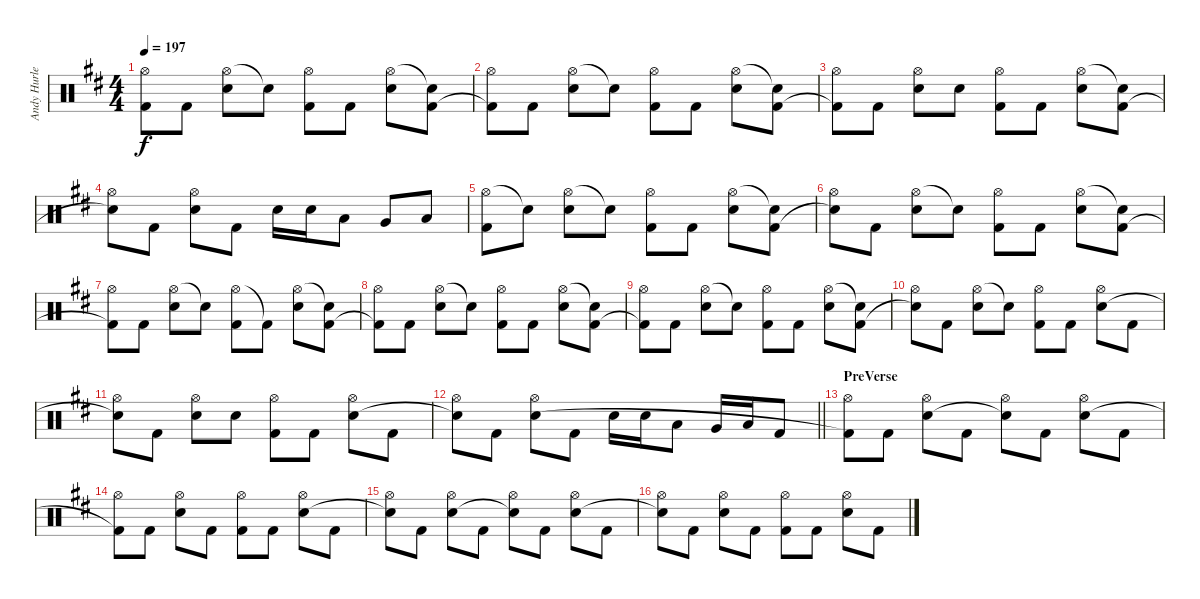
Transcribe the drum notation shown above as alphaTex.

\track ("Andy Hurley (Drums)" "Andy Hurle") {instrument percussion}
\staff {score}
\articulation defaults
\ts (4 4)
\tempo 197
\clef neutral
\ks d
("Hi-Hat (open)" "Kick (hit) 2"{t}).8{dy f} "Kick (hit) 2".8 ("Hi-Hat (open)" "Electric Snare (hit)").8 "Snare (hit)"{t}.8 ("Hi-Hat (open)" "Kick (hit) 2").8 "Kick (hit) 2".8 ("Hi-Hat (open)" "Electric Snare (hit)").8 ("Snare (hit)"{t} "Kick (hit) 2").8 |
("Hi-Hat (open)" "Kick (hit) 2"{t}).8 "Kick (hit) 2".8 ("Hi-Hat (open)" "Electric Snare (hit)").8 "Snare (hit)"{t}.8 ("Hi-Hat (open)" "Kick (hit) 2").8 "Kick (hit) 2".8 ("Hi-Hat (open)" "Electric Snare (hit)").8 ("Snare (hit)"{t} "Kick (hit) 2").8 |
("Hi-Hat (open)" "Kick (hit) 2"{t}).8 "Kick (hit) 2".8 ("Hi-Hat (open)" "Electric Snare (hit)").8 "Electric Snare (hit)".8 ("Hi-Hat (open)" "Kick (hit) 2").8 "Kick (hit) 2".8 ("Hi-Hat (open)" "Electric Snare (hit)").8 ("Snare (hit)"{t} "Kick (hit) 2").8 |
("Hi-Hat (open)" "Snare (hit)"{t}).8 "Kick (hit) 2".8 ("Hi-Hat (open)" "Electric Snare (hit)").8 "Kick (hit) 2".8 "Electric Snare (hit)".16 "Electric Snare (hit)".16 "Low Tom (hit)".8 "Very Low Tom (hit)".8 "Low Floor Tom (hit)".8 |
("Hi-Hat (open)" "Kick (hit) 2").8 "Snare (hit)"{t}.8 ("Hi-Hat (open)" "Electric Snare (hit)").8 "Snare (hit)"{t}.8 ("Hi-Hat (open)" "Kick (hit) 2").8 "Kick (hit) 2".8 ("Hi-Hat (open)" "Electric Snare (hit)").8 ("Snare (hit)"{t} "Kick (hit) 2").8 |
("Hi-Hat (open)" "Snare (hit)"{t}).8 "Kick (hit) 2".8 ("Hi-Hat (open)" "Electric Snare (hit)").8 "Snare (hit)"{t}.8 ("Hi-Hat (open)" "Kick (hit) 2").8 "Kick (hit) 2".8 ("Hi-Hat (open)" "Electric Snare (hit)").8 ("Snare (hit)"{t} "Kick (hit) 2").8 |
("Hi-Hat (open)" "Kick (hit) 2"{t}).8 "Kick (hit) 2".8 ("Hi-Hat (open)" "Electric Snare (hit)").8 "Snare (hit)"{t}.8 ("Hi-Hat (open)" "Kick (hit) 2").8 "Kick (hit) 2"{t}.8 ("Hi-Hat (open)" "Electric Snare (hit)").8 ("Snare (hit)"{t} "Kick (hit) 2").8 |
("Hi-Hat (open)" "Kick (hit) 2"{t}).8 "Kick (hit) 2".8 ("Hi-Hat (open)" "Electric Snare (hit)").8 "Snare (hit)"{t}.8 ("Hi-Hat (open)" "Kick (hit) 2").8 "Kick (hit) 2".8 ("Hi-Hat (open)" "Electric Snare (hit)").8 ("Snare (hit)"{t} "Kick (hit) 2").8 |
("Hi-Hat (open)" "Kick (hit) 2"{t}).8 "Kick (hit) 2".8 ("Hi-Hat (open)" "Electric Snare (hit)").8 "Snare (hit)"{t}.8 ("Hi-Hat (open)" "Kick (hit) 2").8 "Kick (hit) 2".8 ("Hi-Hat (open)" "Electric Snare (hit)").8 ("Snare (hit)"{t} "Kick (hit) 2").8 |
("Hi-Hat (open)" "Snare (hit)"{t}).8 "Kick (hit) 2".8 ("Hi-Hat (open)" "Electric Snare (hit)").8 "Snare (hit)"{t}.8 ("Hi-Hat (open)" "Kick (hit) 2").8 "Kick (hit) 2".8 ("Hi-Hat (open)" "Electric Snare (hit)").8 "Kick (hit) 2".8 |
("Hi-Hat (open)" "Snare (hit)"{t}).8 "Kick (hit) 2".8 ("Hi-Hat (open)" "Electric Snare (hit)").8 "Electric Snare (hit)".8 ("Hi-Hat (open)" "Kick (hit) 2").8 "Kick (hit) 2".8 ("Hi-Hat (open)" "Electric Snare (hit)").8 "Kick (hit) 2".8 |
\barLineRight lightlight
("Hi-Hat (open)" "Snare (hit)"{t}).8 "Kick (hit) 2".8 ("Hi-Hat (open)" "Electric Snare (hit)").8 "Kick (hit) 2".8 "Electric Snare (hit)".16 "Electric Snare (hit)".16 "Low Tom (hit)".8 "Very Low Tom (hit)".16 "Low Floor Tom (hit)".16 "Kick (hit) 2".8 |
\section ("" "PreVerse")
("Hi-Hat (open)" "Kick (hit) 2"{t}).8 "Kick (hit) 2".8 ("Hi-Hat (open)" "Electric Snare (hit)").8 "Kick (hit) 2".8 ("Hi-Hat (open)" "Snare (hit)"{t}).8 "Kick (hit) 2".8 ("Hi-Hat (open)" "Electric Snare (hit)").8 "Kick (hit) 2".8 |
("Hi-Hat (open)" "Kick (hit) 2"{t}).8 "Kick (hit) 2".8 ("Hi-Hat (open)" "Electric Snare (hit)").8 "Kick (hit) 2".8 ("Hi-Hat (open)" "Kick (hit) 2").8 "Kick (hit) 2".8 ("Hi-Hat (open)" "Electric Snare (hit)").8 "Kick (hit) 2".8 |
("Hi-Hat (open)" "Snare (hit)"{t}).8 "Kick (hit) 2".8 ("Hi-Hat (open)" "Electric Snare (hit)").8 "Kick (hit) 2".8 ("Hi-Hat (open)" "Snare (hit)"{t}).8 "Kick (hit) 2".8 ("Hi-Hat (open)" "Electric Snare (hit)").8 "Kick (hit) 2".8 |
("Hi-Hat (open)" "Snare (hit)"{t}).8 "Kick (hit) 2".8 ("Hi-Hat (open)" "Electric Snare (hit)").8 "Kick (hit) 2".8 ("Hi-Hat (open)" "Kick (hit) 2").8 "Kick (hit) 2".8 ("Hi-Hat (open)" "Electric Snare (hit)").8 "Kick (hit) 2".8
